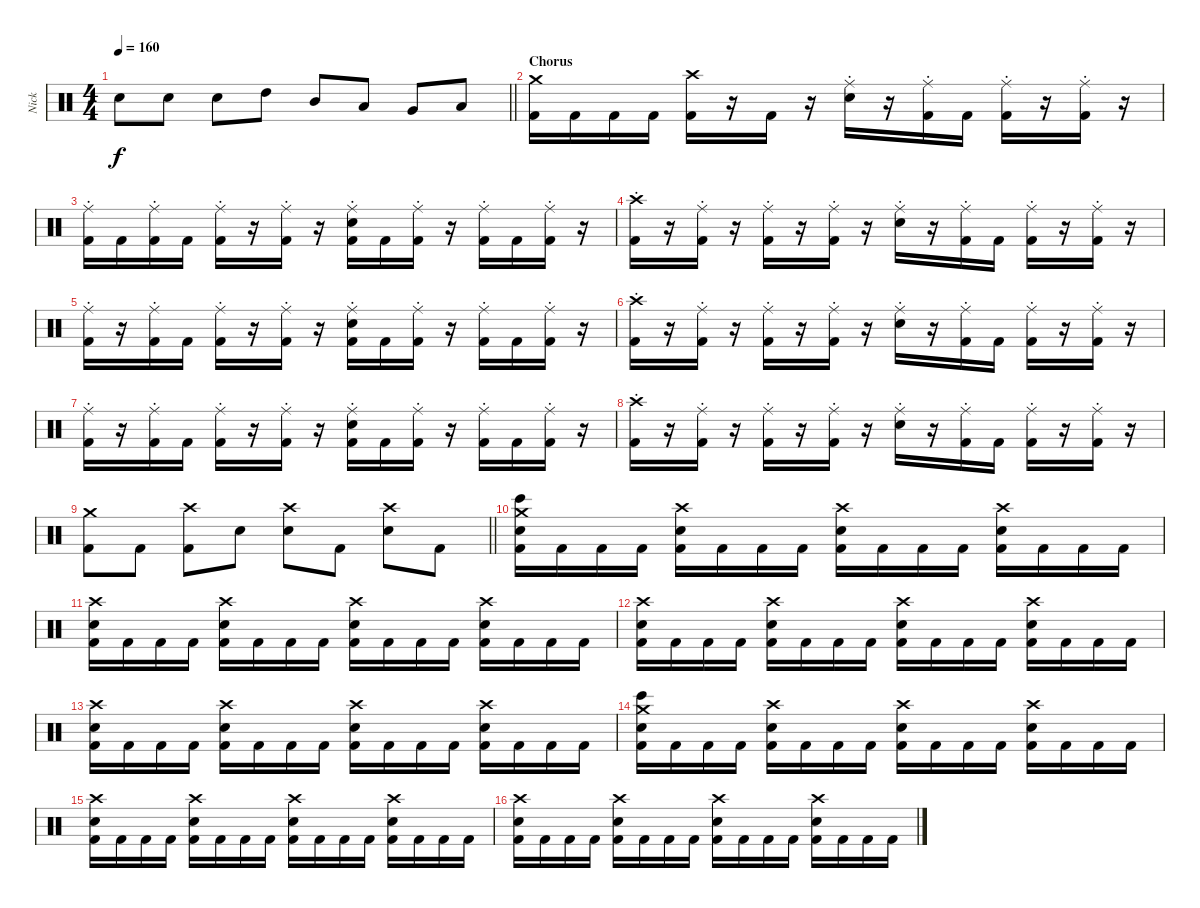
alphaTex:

\track ("Nick" "Nick") {instrument percussion}
\staff {score}
\articulation defaults
\ts (4 4)
\tempo 160
\clef neutral
\barLineRight lightlight
\ks c "Electric Snare (hit)".8{dy f} "Electric Snare (hit)".8 "Electric Snare (hit)".8 "High Tom (hit)".8 "Mid Tom (hit)".8 "Low Tom (hit)".8 "Very Low Tom (hit)".8 "Low Floor Tom (hit)".8
|
\section ("" "Chorus")
("Kick (hit) 2" "Crash medium (hit)").16 "Kick (hit) 2".16 "Kick (hit) 2".16 "Kick (hit) 2".16 ("Kick (hit) 2" "Crash high (hit)").16 r.16 "Kick (hit) 2".16 r.16 ("Electric Snare (hit)" "Ride (middle)"{st}).16 r.16 ("Kick (hit) 2" "Ride (middle)"{st}).16 "Kick (hit) 2".16 ("Kick (hit) 2" "Ride (middle)"{st}).16 r.16 ("Kick (hit) 2" "Ride (middle)"{st}).16 r.16 |
("Kick (hit) 2" "Ride (middle)"{st}).16 "Kick (hit) 2".16 ("Kick (hit) 2" "Ride (middle)"{st}).16 "Kick (hit) 2".16 ("Kick (hit) 2" "Ride (middle)"{st}).16 r.16 ("Kick (hit) 2" "Ride (middle)"{st}).16 r.16 ("Kick (hit) 2" "Electric Snare (hit)" "Ride (middle)"{st}).16 "Kick (hit) 2".16 ("Kick (hit) 2" "Ride (middle)"{st}).16 r.16 ("Kick (hit) 2" "Ride (middle)"{st}).16 "Kick (hit) 2".16 ("Kick (hit) 2" "Ride (middle)"{st}).16 r.16 |
("Kick (hit) 2" "Crash high (hit)"{st}).16 r.16 ("Kick (hit) 2" "Ride (middle)"{st}).16 r.16 ("Kick (hit) 2" "Ride (middle)"{st}).16 r.16 ("Kick (hit) 2" "Ride (middle)"{st}).16 r.16 ("Electric Snare (hit)" "Ride (middle)"{st}).16 r.16 ("Kick (hit) 2" "Ride (middle)"{st}).16 "Kick (hit) 2".16 ("Kick (hit) 2" "Ride (middle)"{st}).16 r.16 ("Kick (hit) 2" "Ride (middle)"{st}).16 r.16 |
("Kick (hit) 2" "Ride (middle)"{st}).16 r.16 ("Kick (hit) 2" "Ride (middle)"{st}).16 "Kick (hit) 2".16 ("Kick (hit) 2" "Ride (middle)"{st}).16 r.16 ("Kick (hit) 2" "Ride (middle)"{st}).16 r.16 ("Kick (hit) 2" "Electric Snare (hit)" "Ride (middle)"{st}).16 "Kick (hit) 2".16 ("Kick (hit) 2" "Ride (middle)"{st}).16 r.16 ("Kick (hit) 2" "Ride (middle)"{st}).16 "Kick (hit) 2".16 ("Kick (hit) 2" "Ride (middle)"{st}).16 r.16 |
("Kick (hit) 2" "Crash high (hit)"{st}).16 r.16 ("Kick (hit) 2" "Ride (middle)"{st}).16 r.16 ("Kick (hit) 2" "Ride (middle)"{st}).16 r.16 ("Kick (hit) 2" "Ride (middle)"{st}).16 r.16 ("Electric Snare (hit)" "Ride (middle)"{st}).16 r.16 ("Kick (hit) 2" "Ride (middle)"{st}).16 "Kick (hit) 2".16 ("Kick (hit) 2" "Ride (middle)"{st}).16 r.16 ("Kick (hit) 2" "Ride (middle)"{st}).16 r.16 |
("Kick (hit) 2" "Ride (middle)"{st}).16 r.16 ("Kick (hit) 2" "Ride (middle)"{st}).16 "Kick (hit) 2".16 ("Kick (hit) 2" "Ride (middle)"{st}).16 r.16 ("Kick (hit) 2" "Ride (middle)"{st}).16 r.16 ("Kick (hit) 2" "Electric Snare (hit)" "Ride (middle)"{st}).16 "Kick (hit) 2".16 ("Kick (hit) 2" "Ride (middle)"{st}).16 r.16 ("Kick (hit) 2" "Ride (middle)"{st}).16 "Kick (hit) 2".16 ("Kick (hit) 2" "Ride (middle)"{st}).16 r.16 |
("Kick (hit) 2" "Crash high (hit)"{st}).16 r.16 ("Kick (hit) 2" "Ride (middle)"{st}).16 r.16 ("Kick (hit) 2" "Ride (middle)"{st}).16 r.16 ("Kick (hit) 2" "Ride (middle)"{st}).16 r.16 ("Electric Snare (hit)" "Ride (middle)"{st}).16 r.16 ("Kick (hit) 2" "Ride (middle)"{st}).16 "Kick (hit) 2".16 ("Kick (hit) 2" "Ride (middle)"{st}).16 r.16 ("Kick (hit) 2" "Ride (middle)"{st}).16 r.16 |
\barLineRight lightlight
("Kick (hit) 2" "Crash medium (hit)").8 "Kick (hit) 2".8 ("Kick (hit) 2" "Crash high (hit)").8 "Electric Snare (hit)".8 ("Electric Snare (hit)" "Crash high (hit)").8 "Kick (hit) 2".8 ("Electric Snare (hit)" "Crash high (hit)").8 "Kick (hit) 2".8 |
("Kick (hit) 2" "Electric Snare (hit)" "Bongo High (hit)" "Crash medium (hit)").16 "Kick (hit) 2".16 "Kick (hit) 2".16 "Kick (hit) 2".16 ("Kick (hit) 2" "Electric Snare (hit)" "Crash high (hit)").16 "Kick (hit) 2".16 "Kick (hit) 2".16 "Kick (hit) 2".16 ("Kick (hit) 2" "Electric Snare (hit)" "Crash high (hit)").16 "Kick (hit) 2".16 "Kick (hit) 2".16 "Kick (hit) 2".16 ("Kick (hit) 2" "Electric Snare (hit)" "Crash high (hit)").16 "Kick (hit) 2".16 "Kick (hit) 2".16 "Kick (hit) 2".16 |
("Kick (hit) 2" "Electric Snare (hit)" "Crash high (hit)").16 "Kick (hit) 2".16 "Kick (hit) 2".16 "Kick (hit) 2".16 ("Kick (hit) 2" "Electric Snare (hit)" "Crash high (hit)").16 "Kick (hit) 2".16 "Kick (hit) 2".16 "Kick (hit) 2".16 ("Kick (hit) 2" "Electric Snare (hit)" "Crash high (hit)").16 "Kick (hit) 2".16 "Kick (hit) 2".16 "Kick (hit) 2".16 ("Kick (hit) 2" "Electric Snare (hit)" "Crash high (hit)").16 "Kick (hit) 2".16 "Kick (hit) 2".16 "Kick (hit) 2".16 |
("Kick (hit) 2" "Electric Snare (hit)" "Crash high (hit)").16 "Kick (hit) 2".16 "Kick (hit) 2".16 "Kick (hit) 2".16 ("Kick (hit) 2" "Electric Snare (hit)" "Crash high (hit)").16 "Kick (hit) 2".16 "Kick (hit) 2".16 "Kick (hit) 2".16 ("Kick (hit) 2" "Electric Snare (hit)" "Crash high (hit)").16 "Kick (hit) 2".16 "Kick (hit) 2".16 "Kick (hit) 2".16 ("Kick (hit) 2" "Electric Snare (hit)" "Crash high (hit)").16 "Kick (hit) 2".16 "Kick (hit) 2".16 "Kick (hit) 2".16 |
("Kick (hit) 2" "Electric Snare (hit)" "Crash high (hit)").16 "Kick (hit) 2".16 "Kick (hit) 2".16 "Kick (hit) 2".16 ("Kick (hit) 2" "Electric Snare (hit)" "Crash high (hit)").16 "Kick (hit) 2".16 "Kick (hit) 2".16 "Kick (hit) 2".16 ("Kick (hit) 2" "Electric Snare (hit)" "Crash high (hit)").16 "Kick (hit) 2".16 "Kick (hit) 2".16 "Kick (hit) 2".16 ("Kick (hit) 2" "Electric Snare (hit)" "Crash high (hit)").16 "Kick (hit) 2".16 "Kick (hit) 2".16 "Kick (hit) 2".16 |
("Kick (hit) 2" "Electric Snare (hit)" "Bongo High (hit)" "Crash medium (hit)").16 "Kick (hit) 2".16 "Kick (hit) 2".16 "Kick (hit) 2".16 ("Kick (hit) 2" "Electric Snare (hit)" "Crash high (hit)").16 "Kick (hit) 2".16 "Kick (hit) 2".16 "Kick (hit) 2".16 ("Kick (hit) 2" "Electric Snare (hit)" "Crash high (hit)").16 "Kick (hit) 2".16 "Kick (hit) 2".16 "Kick (hit) 2".16 ("Kick (hit) 2" "Electric Snare (hit)" "Crash high (hit)").16 "Kick (hit) 2".16 "Kick (hit) 2".16 "Kick (hit) 2".16 |
("Kick (hit) 2" "Electric Snare (hit)" "Crash high (hit)").16 "Kick (hit) 2".16 "Kick (hit) 2".16 "Kick (hit) 2".16 ("Kick (hit) 2" "Electric Snare (hit)" "Crash high (hit)").16 "Kick (hit) 2".16 "Kick (hit) 2".16 "Kick (hit) 2".16 ("Kick (hit) 2" "Electric Snare (hit)" "Crash high (hit)").16 "Kick (hit) 2".16 "Kick (hit) 2".16 "Kick (hit) 2".16 ("Kick (hit) 2" "Electric Snare (hit)" "Crash high (hit)").16 "Kick (hit) 2".16 "Kick (hit) 2".16 "Kick (hit) 2".16 |
("Kick (hit) 2" "Electric Snare (hit)" "Crash high (hit)").16 "Kick (hit) 2".16 "Kick (hit) 2".16 "Kick (hit) 2".16 ("Kick (hit) 2" "Electric Snare (hit)" "Crash high (hit)").16 "Kick (hit) 2".16 "Kick (hit) 2".16 "Kick (hit) 2".16 ("Kick (hit) 2" "Electric Snare (hit)" "Crash high (hit)").16 "Kick (hit) 2".16 "Kick (hit) 2".16 "Kick (hit) 2".16 ("Kick (hit) 2" "Electric Snare (hit)" "Crash high (hit)").16 "Kick (hit) 2".16 "Kick (hit) 2".16 "Kick (hit) 2".16
